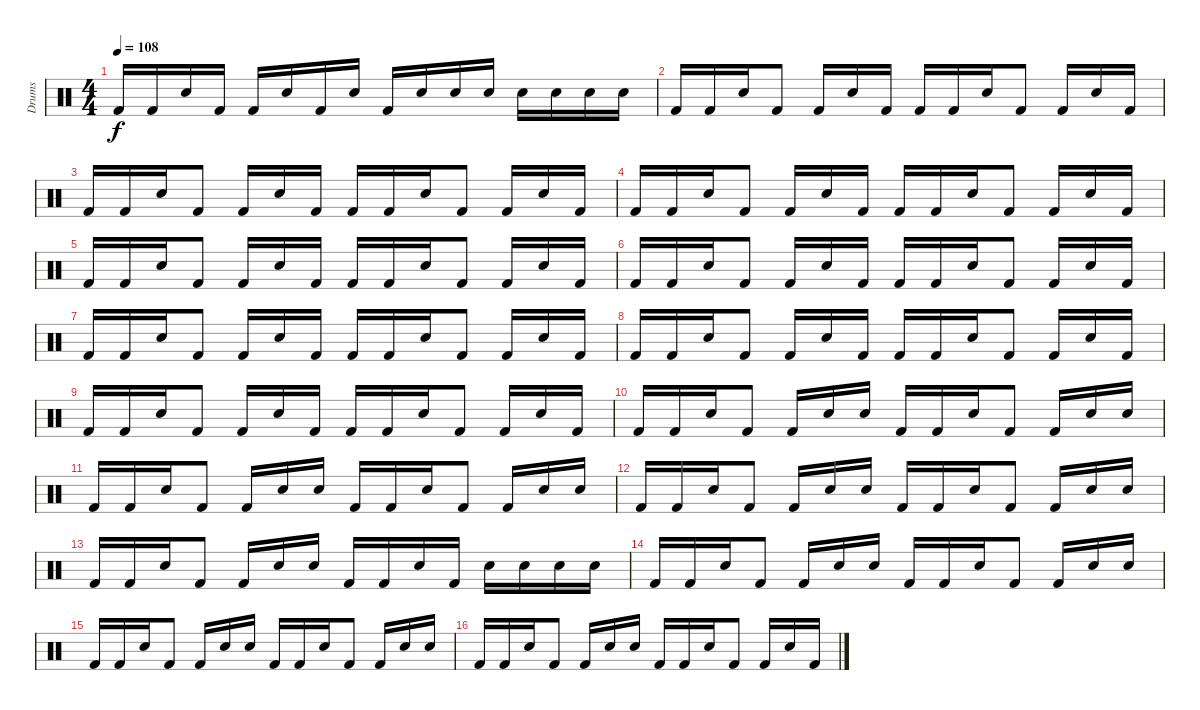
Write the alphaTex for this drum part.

\track ("Drums" "Drums") {instrument percussion}
\staff {score}
\articulation defaults
\ts (4 4)
\tempo 108
\clef neutral
\ks c "Kick (hit) 2".16{dy f} "Kick (hit) 2".16 "Snare (hit) 2".16 "Kick (hit) 2".16 "Kick (hit) 2".16 "Snare (hit) 2".16 "Kick (hit) 2".16 "Snare (hit) 2".16 "Kick (hit) 2".16 "Snare (hit) 2".16 "Snare (hit) 2".16 "Snare (hit) 2".16 "Snare (hit) 2".16 "Snare (hit) 2".16 "Snare (hit) 2".16 "Snare (hit) 2".16
|
"Kick (hit) 2".16 "Kick (hit) 2".16 "Snare (hit) 2".16 "Kick (hit) 2".8 "Kick (hit) 2".16 "Snare (hit) 2".16 "Kick (hit) 2".16 "Kick (hit) 2".16 "Kick (hit) 2".16 "Snare (hit) 2".16 "Kick (hit) 2".8 "Kick (hit) 2".16 "Snare (hit) 2".16 "Kick (hit) 2".16 |
"Kick (hit) 2".16 "Kick (hit) 2".16 "Snare (hit) 2".16 "Kick (hit) 2".8 "Kick (hit) 2".16 "Snare (hit) 2".16 "Kick (hit) 2".16 "Kick (hit) 2".16 "Kick (hit) 2".16 "Snare (hit) 2".16 "Kick (hit) 2".8 "Kick (hit) 2".16 "Snare (hit) 2".16 "Kick (hit) 2".16 |
"Kick (hit) 2".16 "Kick (hit) 2".16 "Snare (hit) 2".16 "Kick (hit) 2".8 "Kick (hit) 2".16 "Snare (hit) 2".16 "Kick (hit) 2".16 "Kick (hit) 2".16 "Kick (hit) 2".16 "Snare (hit) 2".16 "Kick (hit) 2".8 "Kick (hit) 2".16 "Snare (hit) 2".16 "Kick (hit) 2".16 |
"Kick (hit) 2".16 "Kick (hit) 2".16 "Snare (hit) 2".16 "Kick (hit) 2".8 "Kick (hit) 2".16 "Snare (hit) 2".16 "Kick (hit) 2".16 "Kick (hit) 2".16 "Kick (hit) 2".16 "Snare (hit) 2".16 "Kick (hit) 2".8 "Kick (hit) 2".16 "Snare (hit) 2".16 "Kick (hit) 2".16 |
"Kick (hit) 2".16 "Kick (hit) 2".16 "Snare (hit) 2".16 "Kick (hit) 2".8 "Kick (hit) 2".16 "Snare (hit) 2".16 "Kick (hit) 2".16 "Kick (hit) 2".16 "Kick (hit) 2".16 "Snare (hit) 2".16 "Kick (hit) 2".8 "Kick (hit) 2".16 "Snare (hit) 2".16 "Kick (hit) 2".16 |
"Kick (hit) 2".16 "Kick (hit) 2".16 "Snare (hit) 2".16 "Kick (hit) 2".8 "Kick (hit) 2".16 "Snare (hit) 2".16 "Kick (hit) 2".16 "Kick (hit) 2".16 "Kick (hit) 2".16 "Snare (hit) 2".16 "Kick (hit) 2".8 "Kick (hit) 2".16 "Snare (hit) 2".16 "Kick (hit) 2".16 |
"Kick (hit) 2".16 "Kick (hit) 2".16 "Snare (hit) 2".16 "Kick (hit) 2".8 "Kick (hit) 2".16 "Snare (hit) 2".16 "Kick (hit) 2".16 "Kick (hit) 2".16 "Kick (hit) 2".16 "Snare (hit) 2".16 "Kick (hit) 2".8 "Kick (hit) 2".16 "Snare (hit) 2".16 "Kick (hit) 2".16 |
"Kick (hit) 2".16 "Kick (hit) 2".16 "Snare (hit) 2".16 "Kick (hit) 2".8 "Kick (hit) 2".16 "Snare (hit) 2".16 "Kick (hit) 2".16 "Kick (hit) 2".16 "Kick (hit) 2".16 "Snare (hit) 2".16 "Kick (hit) 2".8 "Kick (hit) 2".16 "Snare (hit) 2".16 "Kick (hit) 2".16 |
"Kick (hit) 2".16 "Kick (hit) 2".16 "Snare (hit) 2".16 "Kick (hit) 2".8 "Kick (hit) 2".16 "Snare (hit) 2".16 "Snare (hit) 2".16 "Kick (hit) 2".16 "Kick (hit) 2".16 "Snare (hit) 2".16 "Kick (hit) 2".8 "Kick (hit) 2".16 "Snare (hit) 2".16 "Snare (hit) 2".16 |
"Kick (hit) 2".16 "Kick (hit) 2".16 "Snare (hit) 2".16 "Kick (hit) 2".8 "Kick (hit) 2".16 "Snare (hit) 2".16 "Snare (hit) 2".16 "Kick (hit) 2".16 "Kick (hit) 2".16 "Snare (hit) 2".16 "Kick (hit) 2".8 "Kick (hit) 2".16 "Snare (hit) 2".16 "Snare (hit) 2".16 |
"Kick (hit) 2".16 "Kick (hit) 2".16 "Snare (hit) 2".16 "Kick (hit) 2".8 "Kick (hit) 2".16 "Snare (hit) 2".16 "Snare (hit) 2".16 "Kick (hit) 2".16 "Kick (hit) 2".16 "Snare (hit) 2".16 "Kick (hit) 2".8 "Kick (hit) 2".16 "Snare (hit) 2".16 "Snare (hit)".16 |
"Kick (hit) 2".16 "Kick (hit) 2".16 "Snare (hit) 2".16 "Kick (hit) 2".8 "Kick (hit) 2".16 "Snare (hit) 2".16 "Snare (hit) 2".16 "Kick (hit) 2".16 "Kick (hit) 2".16 "Snare (hit) 2".16 "Kick (hit) 2".16 "Snare (hit) 2".16 "Snare (hit) 2".16 "Snare (hit) 2".16 "Snare (hit) 2".16 |
"Kick (hit) 2".16 "Kick (hit) 2".16 "Snare (hit) 2".16 "Kick (hit) 2".8 "Kick (hit) 2".16 "Snare (hit) 2".16 "Snare (hit) 2".16 "Kick (hit) 2".16 "Kick (hit) 2".16 "Snare (hit) 2".16 "Kick (hit) 2".8 "Kick (hit) 2".16 "Snare (hit) 2".16 "Snare (hit) 2".16 |
"Kick (hit) 2".16 "Kick (hit) 2".16 "Snare (hit) 2".16 "Kick (hit) 2".8 "Kick (hit) 2".16 "Snare (hit) 2".16 "Snare (hit) 2".16 "Kick (hit) 2".16 "Kick (hit) 2".16 "Snare (hit) 2".16 "Kick (hit) 2".8 "Kick (hit) 2".16 "Snare (hit) 2".16 "Snare (hit) 2".16 |
"Kick (hit) 2".16 "Kick (hit) 2".16 "Snare (hit) 2".16 "Kick (hit) 2".8 "Kick (hit) 2".16 "Snare (hit) 2".16 "Snare (hit) 2".16 "Kick (hit) 2".16 "Kick (hit) 2".16 "Snare (hit) 2".16 "Kick (hit) 2".8 "Kick (hit) 2".16 "Snare (hit) 2".16 "Kick (hit) 2".16
